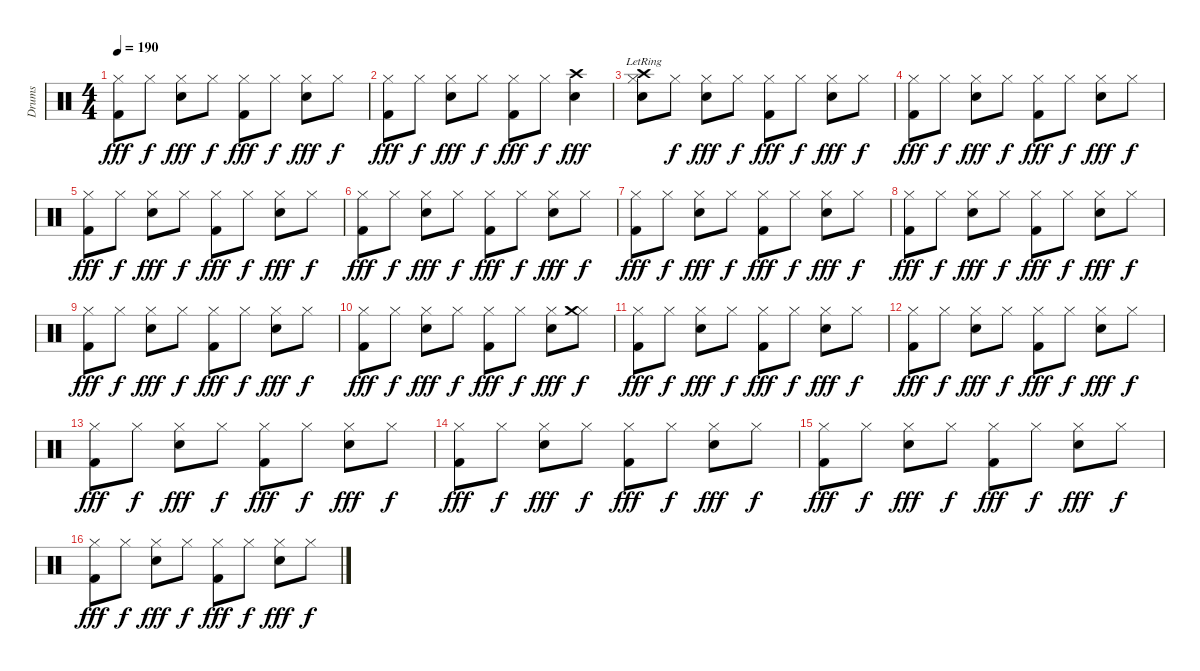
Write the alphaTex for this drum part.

\track ("Drums" "Drums") {instrument percussion}
\staff {score}
\articulation defaults
\ts (4 4)
\tempo 190
\clef neutral
\ks c
("Kick (hit) 2" "Hi-Hat (closed)").8{dy fff} "Hi-Hat (closed)".8{dy f} ("Snare (hit) 2" "Hi-Hat (closed)").8{dy fff} "Hi-Hat (closed)".8{dy f} ("Kick (hit) 2" "Hi-Hat (closed)").8{dy fff} "Hi-Hat (closed)".8{dy f} ("Snare (hit) 2" "Hi-Hat (closed)").8{dy fff} "Hi-Hat (closed)".8{dy f} |
("Kick (hit) 2" "Hi-Hat (closed)").8{dy fff} "Hi-Hat (closed)".8{dy f} ("Snare (hit) 2" "Hi-Hat (closed)").8{dy fff} "Hi-Hat (closed)".8{dy f} ("Kick (hit) 2" "Hi-Hat (closed)").8{dy fff} "Hi-Hat (closed)".8{dy f} ("Snare (hit) 2" "Crash high (hit)").4{dy fff} |
("Snare (hit) 2" "Hi-Hat (closed)" "Crash high (hit)"{lr}).8 "Hi-Hat (closed)".8{dy f} ("Snare (hit) 2" "Hi-Hat (closed)").8{dy fff} "Hi-Hat (closed)".8{dy f} ("Kick (hit) 2" "Hi-Hat (closed)").8{dy fff} "Hi-Hat (closed)".8{dy f} ("Snare (hit) 2" "Hi-Hat (closed)").8{dy fff} "Hi-Hat (closed)".8{dy f} |
("Kick (hit) 2" "Hi-Hat (closed)").8{dy fff} "Hi-Hat (closed)".8{dy f} ("Snare (hit) 2" "Hi-Hat (closed)").8{dy fff} "Hi-Hat (closed)".8{dy f} ("Kick (hit) 2" "Hi-Hat (closed)").8{dy fff} "Hi-Hat (closed)".8{dy f} ("Snare (hit) 2" "Hi-Hat (closed)").8{dy fff} "Hi-Hat (closed)".8{dy f} |
("Kick (hit) 2" "Hi-Hat (closed)").8{dy fff} "Hi-Hat (closed)".8{dy f} ("Snare (hit) 2" "Hi-Hat (closed)").8{dy fff} "Hi-Hat (closed)".8{dy f} ("Kick (hit) 2" "Hi-Hat (closed)").8{dy fff} "Hi-Hat (closed)".8{dy f} ("Snare (hit) 2" "Hi-Hat (closed)").8{dy fff} "Hi-Hat (closed)".8{dy f} |
("Kick (hit) 2" "Hi-Hat (closed)").8{dy fff} "Hi-Hat (closed)".8{dy f} ("Snare (hit) 2" "Hi-Hat (closed)").8{dy fff} "Hi-Hat (closed)".8{dy f} ("Kick (hit) 2" "Hi-Hat (closed)").8{dy fff} "Hi-Hat (closed)".8{dy f} ("Snare (hit) 2" "Hi-Hat (closed)").8{dy fff} "Hi-Hat (closed)".8{dy f} |
("Kick (hit) 2" "Hi-Hat (closed)").8{dy fff} "Hi-Hat (closed)".8{dy f} ("Snare (hit) 2" "Hi-Hat (closed)").8{dy fff} "Hi-Hat (closed)".8{dy f} ("Kick (hit) 2" "Hi-Hat (closed)").8{dy fff} "Hi-Hat (closed)".8{dy f} ("Snare (hit) 2" "Hi-Hat (closed)").8{dy fff} "Hi-Hat (closed)".8{dy f} |
("Kick (hit) 2" "Hi-Hat (closed)").8{dy fff} "Hi-Hat (closed)".8{dy f} ("Snare (hit) 2" "Hi-Hat (closed)").8{dy fff} "Hi-Hat (closed)".8{dy f} ("Kick (hit) 2" "Hi-Hat (closed)").8{dy fff} "Hi-Hat (closed)".8{dy f} ("Snare (hit) 2" "Hi-Hat (closed)").8{dy fff} "Hi-Hat (closed)".8{dy f} |
("Kick (hit) 2" "Hi-Hat (closed)").8{dy fff} "Hi-Hat (closed)".8{dy f} ("Snare (hit) 2" "Hi-Hat (closed)").8{dy fff} "Hi-Hat (closed)".8{dy f} ("Kick (hit) 2" "Hi-Hat (closed)").8{dy fff} "Hi-Hat (closed)".8{dy f} ("Snare (hit) 2" "Hi-Hat (closed)").8{dy fff} "Hi-Hat (closed)".8{dy f} |
("Kick (hit) 2" "Hi-Hat (closed)").8{dy fff} "Hi-Hat (closed)".8{dy f} ("Snare (hit) 2" "Hi-Hat (closed)").8{dy fff} "Hi-Hat (closed)".8{dy f} ("Kick (hit) 2" "Hi-Hat (closed)").8{dy fff} "Hi-Hat (closed)".8{dy f} ("Snare (hit) 2" "Hi-Hat (closed)").8{dy fff} ("Hi-Hat (closed)" "Crash medium (hit)").8{dy f} |
("Kick (hit) 2" "Hi-Hat (closed)").8{dy fff} "Hi-Hat (closed)".8{dy f} ("Snare (hit) 2" "Hi-Hat (closed)").8{dy fff} "Hi-Hat (closed)".8{dy f} ("Kick (hit) 2" "Hi-Hat (closed)").8{dy fff} "Hi-Hat (closed)".8{dy f} ("Snare (hit) 2" "Hi-Hat (closed)").8{dy fff} "Hi-Hat (closed)".8{dy f} |
("Kick (hit) 2" "Hi-Hat (closed)").8{dy fff} "Hi-Hat (closed)".8{dy f} ("Snare (hit) 2" "Hi-Hat (closed)").8{dy fff} "Hi-Hat (closed)".8{dy f} ("Kick (hit) 2" "Hi-Hat (closed)").8{dy fff} "Hi-Hat (closed)".8{dy f} ("Snare (hit) 2" "Hi-Hat (closed)").8{dy fff} "Hi-Hat (closed)".8{dy f} |
("Kick (hit) 2" "Hi-Hat (closed)").8{dy fff} "Hi-Hat (closed)".8{dy f} ("Snare (hit) 2" "Hi-Hat (closed)").8{dy fff} "Hi-Hat (closed)".8{dy f} ("Kick (hit) 2" "Hi-Hat (closed)").8{dy fff} "Hi-Hat (closed)".8{dy f} ("Snare (hit) 2" "Hi-Hat (closed)").8{dy fff} "Hi-Hat (closed)".8{dy f} |
("Kick (hit) 2" "Hi-Hat (closed)").8{dy fff} "Hi-Hat (closed)".8{dy f} ("Snare (hit) 2" "Hi-Hat (closed)").8{dy fff} "Hi-Hat (closed)".8{dy f} ("Kick (hit) 2" "Hi-Hat (closed)").8{dy fff} "Hi-Hat (closed)".8{dy f} ("Snare (hit) 2" "Hi-Hat (closed)").8{dy fff} "Hi-Hat (closed)".8{dy f} |
("Kick (hit) 2" "Hi-Hat (closed)").8{dy fff} "Hi-Hat (closed)".8{dy f} ("Snare (hit) 2" "Hi-Hat (closed)").8{dy fff} "Hi-Hat (closed)".8{dy f} ("Kick (hit) 2" "Hi-Hat (closed)").8{dy fff} "Hi-Hat (closed)".8{dy f} ("Snare (hit) 2" "Hi-Hat (closed)").8{dy fff} "Hi-Hat (closed)".8{dy f} |
("Kick (hit) 2" "Hi-Hat (closed)").8{dy fff} "Hi-Hat (closed)".8{dy f} ("Snare (hit) 2" "Hi-Hat (closed)").8{dy fff} "Hi-Hat (closed)".8{dy f} ("Kick (hit) 2" "Hi-Hat (closed)").8{dy fff} "Hi-Hat (closed)".8{dy f} ("Snare (hit) 2" "Hi-Hat (closed)").8{dy fff} "Hi-Hat (closed)".8{dy f}
